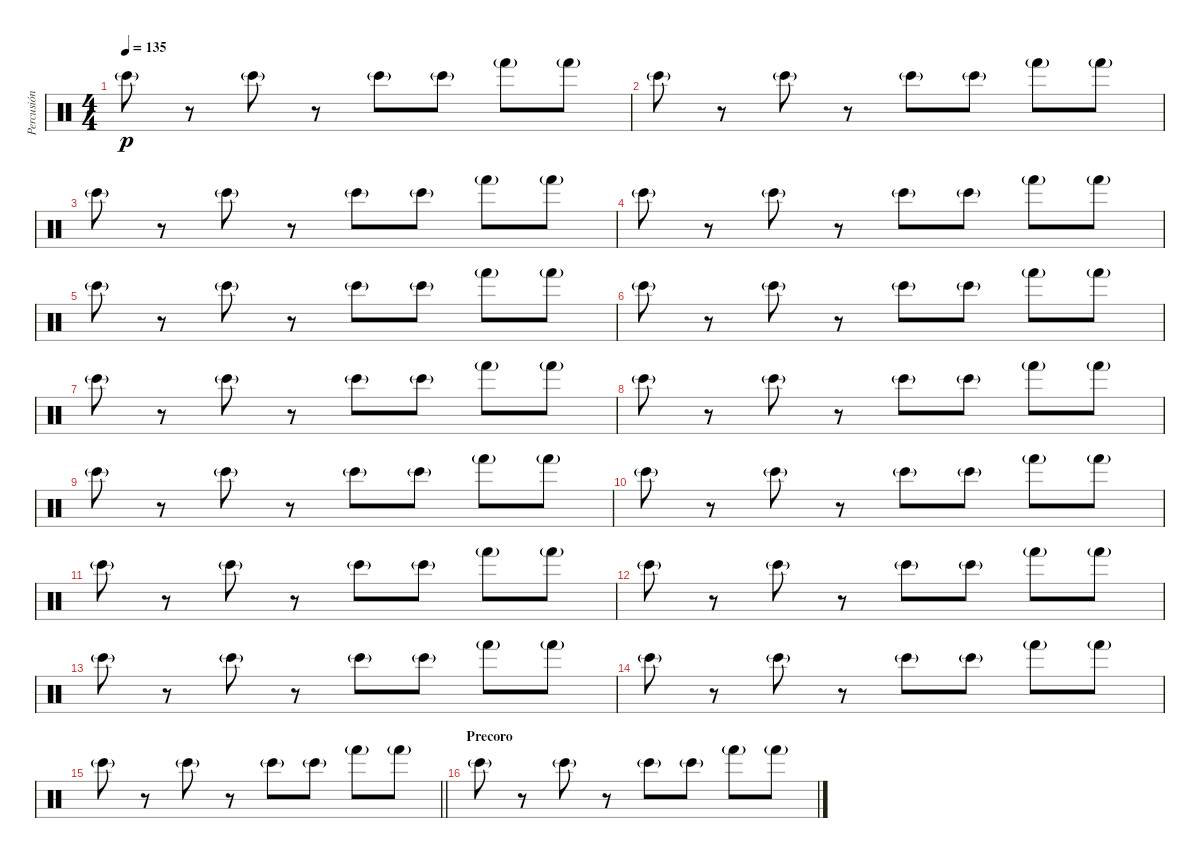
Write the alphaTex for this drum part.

\track ("Percusión" "Percusión") {instrument percussion}
\staff {score}
\articulation defaults
\ts (4 4)
\tempo 135
\clef neutral
\ks c "Bongo High (hit)"{g}.8{dy p}
r.8 "Bongo High (hit)"{g}.8 r.8 "Bongo High (hit)"{g}.8 "Bongo High (hit)"{g}.8 "Hand (hit)"{g}.8 "Hand (hit)"{g}.8 |
"Bongo High (hit)"{g}.8 r.8 "Bongo High (hit)"{g}.8 r.8 "Bongo High (hit)"{g}.8 "Bongo High (hit)"{g}.8 "Hand (hit)"{g}.8 "Hand (hit)"{g}.8 |
"Bongo High (hit)"{g}.8 r.8 "Bongo High (hit)"{g}.8 r.8 "Bongo High (hit)"{g}.8 "Bongo High (hit)"{g}.8 "Hand (hit)"{g}.8 "Hand (hit)"{g}.8 |
"Bongo High (hit)"{g}.8 r.8 "Bongo High (hit)"{g}.8 r.8 "Bongo High (hit)"{g}.8 "Bongo High (hit)"{g}.8 "Hand (hit)"{g}.8 "Hand (hit)"{g}.8 |
"Bongo High (hit)"{g}.8 r.8 "Bongo High (hit)"{g}.8 r.8 "Bongo High (hit)"{g}.8 "Bongo High (hit)"{g}.8 "Hand (hit)"{g}.8 "Hand (hit)"{g}.8 |
"Bongo High (hit)"{g}.8 r.8 "Bongo High (hit)"{g}.8 r.8 "Bongo High (hit)"{g}.8 "Bongo High (hit)"{g}.8 "Hand (hit)"{g}.8 "Hand (hit)"{g}.8 |
"Bongo High (hit)"{g}.8 r.8 "Bongo High (hit)"{g}.8 r.8 "Bongo High (hit)"{g}.8 "Bongo High (hit)"{g}.8 "Hand (hit)"{g}.8 "Hand (hit)"{g}.8 |
"Bongo High (hit)"{g}.8 r.8 "Bongo High (hit)"{g}.8 r.8 "Bongo High (hit)"{g}.8 "Bongo High (hit)"{g}.8 "Hand (hit)"{g}.8 "Hand (hit)"{g}.8 |
"Bongo High (hit)"{g}.8 r.8 "Bongo High (hit)"{g}.8 r.8 "Bongo High (hit)"{g}.8 "Bongo High (hit)"{g}.8 "Hand (hit)"{g}.8 "Hand (hit)"{g}.8 |
"Bongo High (hit)"{g}.8 r.8 "Bongo High (hit)"{g}.8 r.8 "Bongo High (hit)"{g}.8 "Bongo High (hit)"{g}.8 "Hand (hit)"{g}.8 "Hand (hit)"{g}.8 |
"Bongo High (hit)"{g}.8 r.8 "Bongo High (hit)"{g}.8 r.8 "Bongo High (hit)"{g}.8 "Bongo High (hit)"{g}.8 "Hand (hit)"{g}.8 "Hand (hit)"{g}.8 |
"Bongo High (hit)"{g}.8 r.8 "Bongo High (hit)"{g}.8 r.8 "Bongo High (hit)"{g}.8 "Bongo High (hit)"{g}.8 "Hand (hit)"{g}.8 "Hand (hit)"{g}.8 |
"Bongo High (hit)"{g}.8 r.8 "Bongo High (hit)"{g}.8 r.8 "Bongo High (hit)"{g}.8 "Bongo High (hit)"{g}.8 "Hand (hit)"{g}.8 "Hand (hit)"{g}.8 |
"Bongo High (hit)"{g}.8 r.8 "Bongo High (hit)"{g}.8 r.8 "Bongo High (hit)"{g}.8 "Bongo High (hit)"{g}.8 "Hand (hit)"{g}.8 "Hand (hit)"{g}.8 |
\barLineRight lightlight "Bongo High (hit)"{g}.8
r.8 "Bongo High (hit)"{g}.8 r.8 "Bongo High (hit)"{g}.8 "Bongo High (hit)"{g}.8 "Hand (hit)"{g}.8 "Hand (hit)"{g}.8 |
\section ("" "Precoro")
"Bongo High (hit)"{g}.8 r.8 "Bongo High (hit)"{g}.8 r.8 "Bongo High (hit)"{g}.8 "Bongo High (hit)"{g}.8 "Hand (hit)"{g}.8 "Hand (hit)"{g}.8
